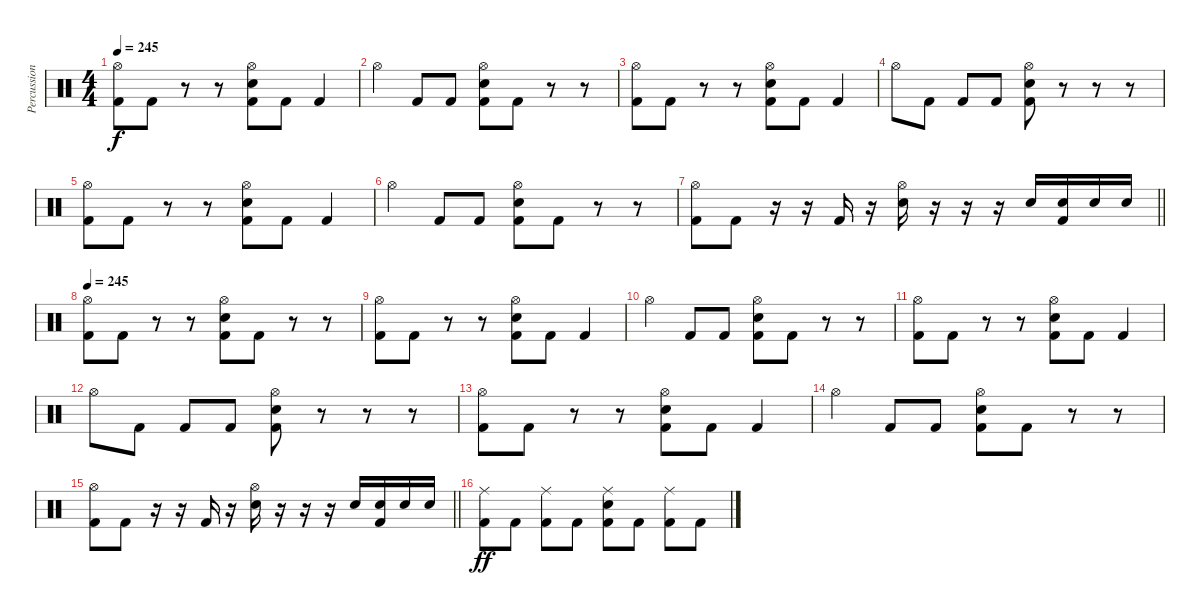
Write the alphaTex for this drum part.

\track ("Percussion" "Percussion") {instrument percussion}
\staff {score}
\articulation defaults
\ts (4 4)
\tempo 245
\clef neutral
\ks c
("Hi-Hat (open)" "Kick (hit) 2").8{dy f} "Kick (hit) 2".8 r.8 r.8 ("Hi-Hat (open)" "Electric Snare (hit)" "Kick (hit) 2").8 "Kick (hit) 2".8 "Kick (hit) 2".4 |
"Hi-Hat (open)".4 "Kick (hit) 2".8 "Kick (hit) 2".8 ("Hi-Hat (open)" "Electric Snare (hit)" "Kick (hit) 2").8 "Kick (hit) 2".8 r.8 r.8 |
("Hi-Hat (open)" "Kick (hit) 2").8 "Kick (hit) 2".8 r.8 r.8 ("Hi-Hat (open)" "Electric Snare (hit)" "Kick (hit) 2").8 "Kick (hit) 2".8 "Kick (hit) 2".4 |
"Hi-Hat (open)".8 "Kick (hit) 2".8 "Kick (hit) 2".8 "Kick (hit) 2".8 ("Hi-Hat (open)" "Electric Snare (hit)" "Kick (hit) 2").8 r.8 r.8 r.8 |
("Hi-Hat (open)" "Kick (hit) 2").8 "Kick (hit) 2".8 r.8 r.8 ("Hi-Hat (open)" "Electric Snare (hit)" "Kick (hit) 2").8 "Kick (hit) 2".8 "Kick (hit) 2".4 |
"Hi-Hat (open)".4 "Kick (hit) 2".8 "Kick (hit) 2".8 ("Hi-Hat (open)" "Electric Snare (hit)" "Kick (hit) 2").8 "Kick (hit) 2".8 r.8 r.8 |
\barLineRight lightlight
("Hi-Hat (open)" "Kick (hit) 2").8 "Kick (hit) 2".8 r.16 r.16 "Kick (hit) 2".16 r.16 ("Hi-Hat (open)" "Electric Snare (hit)").16 r.16 r.16 r.16 "Electric Snare (hit)".16 ("Electric Snare (hit)" "Kick (hit) 2").16 "Electric Snare (hit)".16 "Electric Snare (hit)".16 |
\tempo 245
("Hi-Hat (open)" "Kick (hit) 2").8 "Kick (hit) 2".8 r.8 r.8 ("Hi-Hat (open)" "Electric Snare (hit)" "Kick (hit) 2").8 "Kick (hit) 2".8 r.8 r.8 |
("Hi-Hat (open)" "Kick (hit) 2").8 "Kick (hit) 2".8 r.8 r.8 ("Hi-Hat (open)" "Electric Snare (hit)" "Kick (hit) 2").8 "Kick (hit) 2".8 "Kick (hit) 2".4 |
"Hi-Hat (open)".4 "Kick (hit) 2".8 "Kick (hit) 2".8 ("Hi-Hat (open)" "Electric Snare (hit)" "Kick (hit) 2").8 "Kick (hit) 2".8 r.8 r.8 |
("Hi-Hat (open)" "Kick (hit) 2").8 "Kick (hit) 2".8 r.8 r.8 ("Hi-Hat (open)" "Electric Snare (hit)" "Kick (hit) 2").8 "Kick (hit) 2".8 "Kick (hit) 2".4 |
"Hi-Hat (open)".8 "Kick (hit) 2".8 "Kick (hit) 2".8 "Kick (hit) 2".8 ("Hi-Hat (open)" "Electric Snare (hit)" "Kick (hit) 2").8 r.8 r.8 r.8 |
("Hi-Hat (open)" "Kick (hit) 2").8 "Kick (hit) 2".8 r.8 r.8 ("Hi-Hat (open)" "Electric Snare (hit)" "Kick (hit) 2").8 "Kick (hit) 2".8 "Kick (hit) 2".4 |
"Hi-Hat (open)".4 "Kick (hit) 2".8 "Kick (hit) 2".8 ("Hi-Hat (open)" "Electric Snare (hit)" "Kick (hit) 2").8 "Kick (hit) 2".8 r.8 r.8 |
\barLineRight lightlight
("Hi-Hat (open)" "Kick (hit) 2").8 "Kick (hit) 2".8 r.16 r.16 "Kick (hit) 2".16 r.16 ("Hi-Hat (open)" "Electric Snare (hit)").16 r.16 r.16 r.16 "Electric Snare (hit)".16 ("Electric Snare (hit)" "Kick (hit) 2").16 "Electric Snare (hit)".16 "Electric Snare (hit)".16 |
("Ride (middle)" "Kick (hit) 2").8{dy ff} "Kick (hit) 2".8 ("Ride (middle)" "Kick (hit) 2").8 "Kick (hit) 2".8 ("Ride (middle)" "Electric Snare (hit)" "Kick (hit) 2").8 "Kick (hit) 2".8 ("Ride (middle)" "Kick (hit) 2").8 "Kick (hit) 2".8
